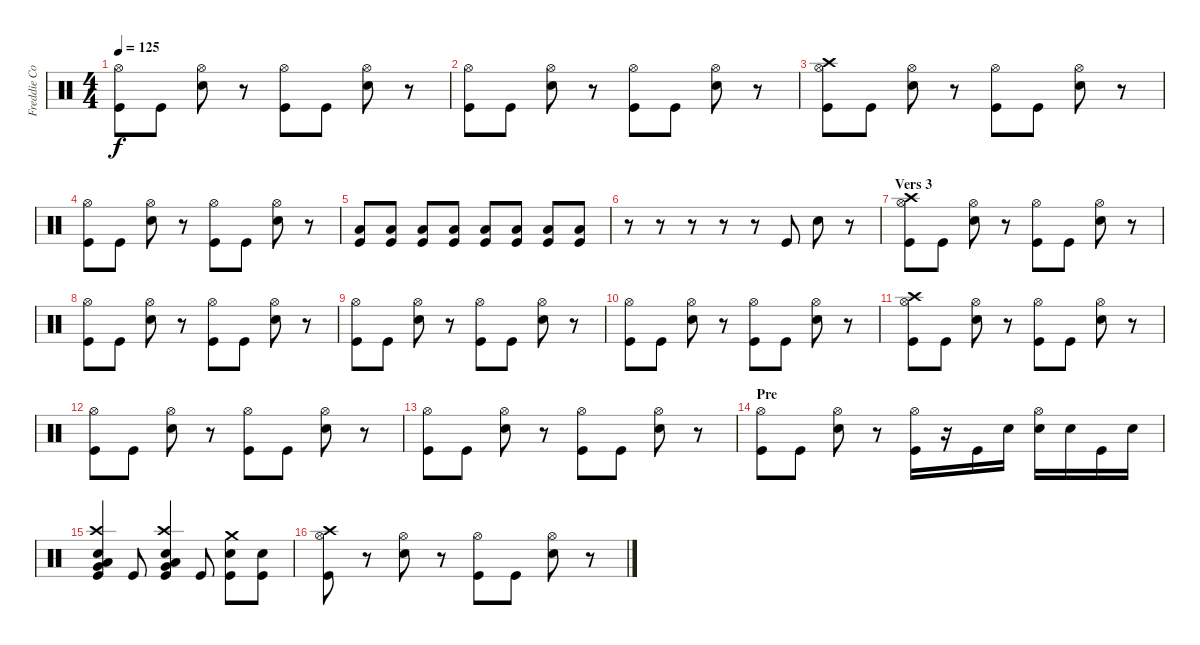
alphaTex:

\track ("Freddie Coury - Drums" "Freddie Co") {instrument percussion}
\staff {score}
\articulation defaults
\ts (4 4)
\tempo 125
\clef neutral
\ks c
("Hi-Hat (open)" "Kick (hit)").8{dy f} "Kick (hit)".8 ("Hi-Hat (open)" "Snare (hit) 2").8 r.8 ("Hi-Hat (open)" "Kick (hit)").8 "Kick (hit)".8 ("Hi-Hat (open)" "Snare (hit) 2").8 r.8 |
("Hi-Hat (open)" "Kick (hit)").8 "Kick (hit)".8 ("Hi-Hat (open)" "Snare (hit) 2").8 r.8 ("Hi-Hat (open)" "Kick (hit)").8 "Kick (hit)".8 ("Hi-Hat (open)" "Snare (hit) 2").8 r.8 |
("Hi-Hat (open)" "Crash high (hit)" "Kick (hit)").8 "Kick (hit)".8 ("Hi-Hat (open)" "Snare (hit) 2").8 r.8 ("Hi-Hat (open)" "Kick (hit)").8 "Kick (hit)".8 ("Hi-Hat (open)" "Snare (hit) 2").8 r.8 |
("Hi-Hat (open)" "Kick (hit)").8 "Kick (hit)".8 ("Hi-Hat (open)" "Snare (hit) 2").8 r.8 ("Hi-Hat (open)" "Kick (hit)").8 "Kick (hit)".8 ("Hi-Hat (open)" "Snare (hit) 2").8 r.8 |
("Kick (hit)" "Low Floor Tom (hit)").8 ("Kick (hit)" "Low Floor Tom (hit)").8 ("Kick (hit)" "Low Floor Tom (hit)").8 ("Kick (hit)" "Low Floor Tom (hit)").8 ("Kick (hit)" "Low Floor Tom (hit)").8 ("Kick (hit)" "Low Floor Tom (hit)").8 ("Kick (hit)" "Low Floor Tom (hit)").8 ("Kick (hit)" "Low Floor Tom (hit)").8 |
r.8 r.8 r.8 r.8 r.8 "Kick (hit)".8 "Snare (hit) 2".8 r.8 |
\section ("" "Vers 3")
("Hi-Hat (open)" "Crash high (hit)" "Kick (hit)").8 "Kick (hit)".8 ("Hi-Hat (open)" "Snare (hit) 2").8 r.8 ("Hi-Hat (open)" "Kick (hit)").8 "Kick (hit)".8 ("Hi-Hat (open)" "Snare (hit) 2").8 r.8 |
("Hi-Hat (open)" "Kick (hit)").8 "Kick (hit)".8 ("Hi-Hat (open)" "Snare (hit) 2").8 r.8 ("Hi-Hat (open)" "Kick (hit)").8 "Kick (hit)".8 ("Hi-Hat (open)" "Snare (hit) 2").8 r.8 |
("Hi-Hat (open)" "Kick (hit)").8 "Kick (hit)".8 ("Hi-Hat (open)" "Snare (hit) 2").8 r.8 ("Hi-Hat (open)" "Kick (hit)").8 "Kick (hit)".8 ("Hi-Hat (open)" "Snare (hit) 2").8 r.8 |
("Hi-Hat (open)" "Kick (hit)").8 "Kick (hit)".8 ("Hi-Hat (open)" "Snare (hit) 2").8 r.8 ("Hi-Hat (open)" "Kick (hit)").8 "Kick (hit)".8 ("Hi-Hat (open)" "Snare (hit) 2").8 r.8 |
("Hi-Hat (open)" "Crash high (hit)" "Kick (hit)").8 "Kick (hit)".8 ("Hi-Hat (open)" "Snare (hit) 2").8 r.8 ("Hi-Hat (open)" "Kick (hit)").8 "Kick (hit)".8 ("Hi-Hat (open)" "Snare (hit) 2").8 r.8 |
("Hi-Hat (open)" "Kick (hit)").8 "Kick (hit)".8 ("Hi-Hat (open)" "Snare (hit) 2").8 r.8 ("Hi-Hat (open)" "Kick (hit)").8 "Kick (hit)".8 ("Hi-Hat (open)" "Snare (hit) 2").8 r.8 |
("Hi-Hat (open)" "Kick (hit)").8 "Kick (hit)".8 ("Hi-Hat (open)" "Snare (hit) 2").8 r.8 ("Hi-Hat (open)" "Kick (hit)").8 "Kick (hit)".8 ("Hi-Hat (open)" "Snare (hit) 2").8 r.8 |
\section ("" "Pre")
("Hi-Hat (open)" "Kick (hit)").8 "Kick (hit)".8 ("Hi-Hat (open)" "Snare (hit) 2").8 r.8 ("Hi-Hat (open)" "Kick (hit)").16 r.16 "Kick (hit)".16 "Snare (hit) 2".16 ("Hi-Hat (open)" "Snare (hit) 2").16 "Snare (hit) 2".16 "Kick (hit)".16 "Snare (hit) 2".16 |
("Crash high (hit)" "Snare (hit) 2" "Kick (hit)" "Low Floor Tom (hit)" "Very Low Tom (hit)").4 "Kick (hit)".8 ("Crash high (hit)" "Snare (hit) 2" "Kick (hit)" "Low Floor Tom (hit)" "Very Low Tom (hit)").4 "Kick (hit)".8 ("Snare (hit) 2" "Crash medium (hit)" "Kick (hit)").8 ("Snare (hit) 2" "Kick (hit)").8 |
("Hi-Hat (open)" "Crash high (hit)" "Kick (hit)").8 r.8 ("Hi-Hat (open)" "Snare (hit) 2").8 r.8 ("Hi-Hat (open)" "Kick (hit)").8 "Kick (hit)".8 ("Hi-Hat (open)" "Snare (hit) 2").8 r.8
